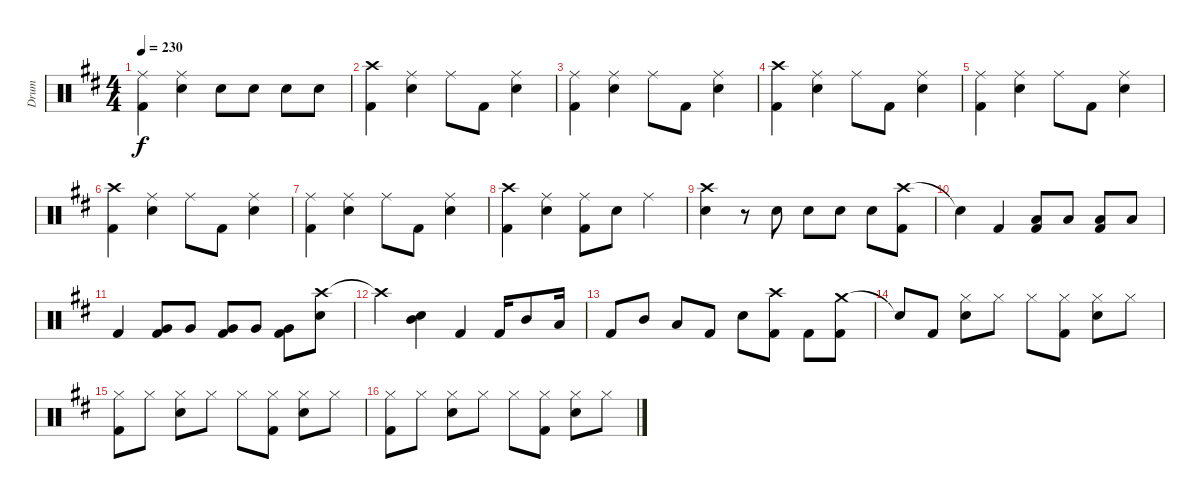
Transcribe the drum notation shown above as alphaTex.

\track ("Drum" "Drum") {instrument percussion}
\staff {score}
\articulation defaults
\ts (4 4)
\tempo 230
\clef neutral
\ks d
("Ride (middle)" "Kick (hit) 2").4{dy f} ("Ride (middle)" "Snare (hit) 2").4 "Snare (hit) 2".8 "Snare (hit) 2".8 "Snare (hit) 2".8 "Snare (hit) 2".8 |
("Crash high (hit)" "Kick (hit) 2").4 ("Ride (middle)" "Snare (hit) 2").4 "Ride (middle)".8 "Kick (hit) 2".8 ("Ride (middle)" "Snare (hit) 2").4 |
("Ride (middle)" "Kick (hit) 2").4 ("Ride (middle)" "Snare (hit) 2").4 "Ride (middle)".8 "Kick (hit) 2".8 ("Ride (middle)" "Snare (hit) 2").4 |
("Crash high (hit)" "Kick (hit) 2").4 ("Ride (middle)" "Snare (hit) 2").4 "Ride (middle)".8 "Kick (hit) 2".8 ("Ride (middle)" "Snare (hit) 2").4 |
("Ride (middle)" "Kick (hit) 2").4 ("Ride (middle)" "Snare (hit) 2").4 "Ride (middle)".8 "Kick (hit) 2".8 ("Ride (middle)" "Snare (hit) 2").4 |
("Crash high (hit)" "Kick (hit) 2").4 ("Ride (middle)" "Snare (hit) 2").4 "Ride (middle)".8 "Kick (hit) 2".8 ("Ride (middle)" "Snare (hit) 2").4 |
("Ride (middle)" "Kick (hit) 2").4 ("Ride (middle)" "Snare (hit) 2").4 "Ride (middle)".8 "Kick (hit) 2".8 ("Ride (middle)" "Snare (hit) 2").4 |
("Crash high (hit)" "Kick (hit) 2").4 ("Ride (middle)" "Snare (hit) 2").4 ("Ride (middle)" "Kick (hit) 2").8 "Snare (hit) 2".8 "Ride (middle)".4 |
("Crash high (hit)" "Snare (hit) 2").4 r.8 "Snare (hit) 2".8 "Snare (hit) 2".8 "Snare (hit) 2".8 "Snare (hit) 2".8 ("Crash high (hit)" "Kick (hit) 2").8 |
"Snare (hit)"{t}.4 "Kick (hit) 2".4 ("Low Tom (hit)" "Kick (hit) 2").8 "Low Tom (hit)".8 ("Low Tom (hit)" "Kick (hit) 2").8 "Low Tom (hit)".8 |
"Kick (hit) 2".4 ("Very Low Tom (hit)" "Kick (hit) 2").8 "Very Low Tom (hit)".8 ("Very Low Tom (hit)" "Kick (hit) 2").8 "Very Low Tom (hit)".8 ("Very Low Tom (hit)" "Kick (hit) 2").8 ("Crash high (hit)" "Snare (hit) 2").8 |
"Crash high (hit)"{t}.4 ("Mid Tom (hit)" "Snare (hit) 2").4 "Kick (hit) 2".4 "Kick (hit) 2".16 "Mid Tom (hit)".8 "Low Tom (hit)".16 |
"Kick (hit) 2".8 "Mid Tom (hit)".8 "Low Tom (hit)".8 "Kick (hit) 2".8 "Snare (hit) 2".8 ("Crash high (hit)" "Kick (hit) 2").8 "Kick (hit) 2".8 ("Crash medium (hit)" "Kick (hit) 2").8 |
"Snare (hit)"{t}.8 "Kick (hit) 2".8 ("Hi-Hat (closed)" "Snare (hit) 2").8 "Hi-Hat (closed)".8 "Hi-Hat (closed)".8 ("Hi-Hat (closed)" "Kick (hit) 2").8 ("Hi-Hat (closed)" "Snare (hit) 2").8 "Hi-Hat (closed)".8 |
("Hi-Hat (closed)" "Kick (hit) 2").8 "Hi-Hat (closed)".8 ("Hi-Hat (closed)" "Snare (hit) 2").8 "Hi-Hat (closed)".8 "Hi-Hat (closed)".8 ("Hi-Hat (closed)" "Kick (hit) 2").8 ("Hi-Hat (closed)" "Snare (hit) 2").8 "Hi-Hat (closed)".8 |
("Hi-Hat (closed)" "Kick (hit) 2").8 "Hi-Hat (closed)".8 ("Hi-Hat (closed)" "Snare (hit) 2").8 "Hi-Hat (closed)".8 "Hi-Hat (closed)".8 ("Hi-Hat (closed)" "Kick (hit) 2").8 ("Hi-Hat (closed)" "Snare (hit) 2").8 "Hi-Hat (closed)".8
